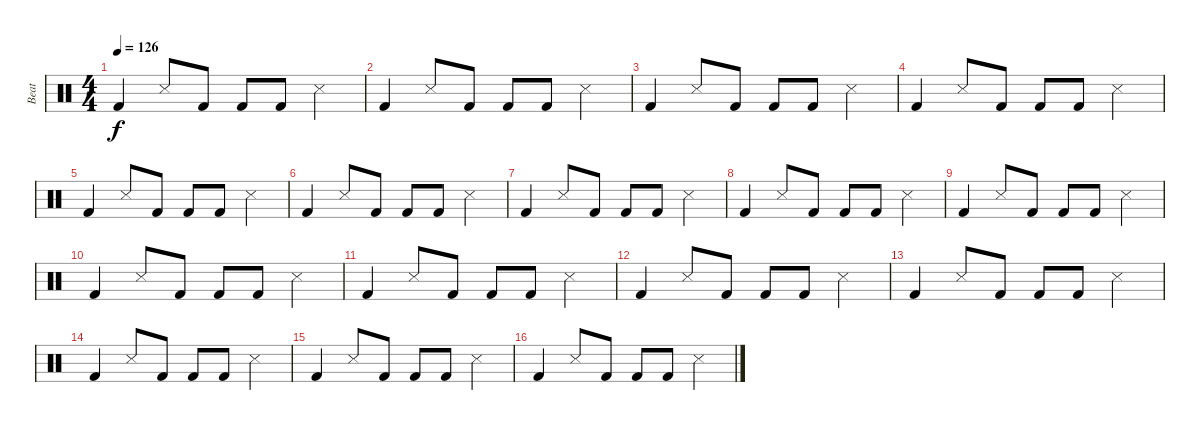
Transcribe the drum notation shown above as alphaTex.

\track ("Beat" "Beat") {instrument percussion}
\staff {score}
\articulation defaults
\ts (4 4)
\tempo 126
\clef neutral
\ks c "Kick (hit) 2".4{dy f} "Snare (side stick) 3".8 "Kick (hit) 2".8 "Kick (hit) 2".8 "Kick (hit) 2".8 "Snare (side stick) 3".4
|
"Kick (hit) 2".4 "Snare (side stick) 3".8 "Kick (hit) 2".8 "Kick (hit) 2".8 "Kick (hit) 2".8 "Snare (side stick) 3".4 |
"Kick (hit) 2".4 "Snare (side stick) 3".8 "Kick (hit) 2".8 "Kick (hit) 2".8 "Kick (hit) 2".8 "Snare (side stick) 3".4 |
"Kick (hit) 2".4 "Snare (side stick) 3".8 "Kick (hit) 2".8 "Kick (hit) 2".8 "Kick (hit) 2".8 "Snare (side stick) 3".4 |
"Kick (hit) 2".4 "Snare (side stick) 3".8 "Kick (hit) 2".8 "Kick (hit) 2".8 "Kick (hit) 2".8 "Snare (side stick) 3".4 |
"Kick (hit) 2".4 "Snare (side stick) 3".8 "Kick (hit) 2".8 "Kick (hit) 2".8 "Kick (hit) 2".8 "Snare (side stick) 3".4 |
"Kick (hit) 2".4 "Snare (side stick) 3".8 "Kick (hit) 2".8 "Kick (hit) 2".8 "Kick (hit) 2".8 "Snare (side stick) 3".4 |
"Kick (hit) 2".4 "Snare (side stick) 3".8 "Kick (hit) 2".8 "Kick (hit) 2".8 "Kick (hit) 2".8 "Snare (side stick) 3".4 |
"Kick (hit) 2".4 "Snare (side stick) 3".8 "Kick (hit) 2".8 "Kick (hit) 2".8 "Kick (hit) 2".8 "Snare (side stick) 3".4 |
"Kick (hit) 2".4 "Snare (side stick) 3".8 "Kick (hit) 2".8 "Kick (hit) 2".8 "Kick (hit) 2".8 "Snare (side stick) 3".4 |
"Kick (hit) 2".4 "Snare (side stick) 3".8 "Kick (hit) 2".8 "Kick (hit) 2".8 "Kick (hit) 2".8 "Snare (side stick) 3".4 |
"Kick (hit) 2".4 "Snare (side stick) 3".8 "Kick (hit) 2".8 "Kick (hit) 2".8 "Kick (hit) 2".8 "Snare (side stick) 3".4 |
"Kick (hit) 2".4 "Snare (side stick) 3".8 "Kick (hit) 2".8 "Kick (hit) 2".8 "Kick (hit) 2".8 "Snare (side stick) 3".4 |
"Kick (hit) 2".4 "Snare (side stick) 3".8 "Kick (hit) 2".8 "Kick (hit) 2".8 "Kick (hit) 2".8 "Snare (side stick) 3".4 |
"Kick (hit) 2".4 "Snare (side stick) 3".8 "Kick (hit) 2".8 "Kick (hit) 2".8 "Kick (hit) 2".8 "Snare (side stick) 3".4 |
"Kick (hit) 2".4 "Snare (side stick) 3".8 "Kick (hit) 2".8 "Kick (hit) 2".8 "Kick (hit) 2".8 "Snare (side stick) 3".4
